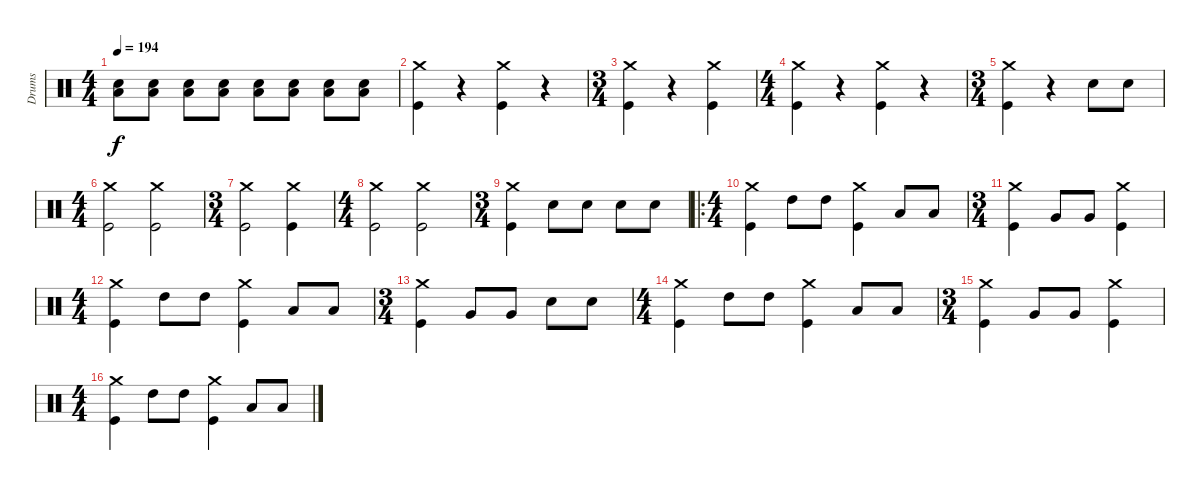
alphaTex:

\track ("Drums" "Drums") {instrument percussion}
\staff {score}
\articulation defaults
\ts (4 4)
\tempo 194
\clef neutral
\ks c
("Low Floor Tom (hit)" "Snare (hit) 2").8{dy f} ("Low Floor Tom (hit)" "Snare (hit) 2").8 ("Low Floor Tom (hit)" "Snare (hit) 2").8 ("Low Floor Tom (hit)" "Snare (hit) 2").8 ("Low Floor Tom (hit)" "Snare (hit) 2").8 ("Low Floor Tom (hit)" "Snare (hit) 2").8 ("Low Floor Tom (hit)" "Snare (hit) 2").8 ("Low Floor Tom (hit)" "Snare (hit) 2").8 |
("Crash medium (hit)" "Kick (hit)").4 r.4 ("Crash medium (hit)" "Kick (hit)").4 r.4 |
\ts (3 4)
("Crash medium (hit)" "Kick (hit)").4 r.4 ("Crash medium (hit)" "Kick (hit)").4 |
\ts (4 4)
("Crash medium (hit)" "Kick (hit)").4 r.4 ("Crash medium (hit)" "Kick (hit)").4 r.4 |
\ts (3 4)
("Crash medium (hit)" "Kick (hit)").4 r.4 "Snare (hit) 2".8 "Snare (hit) 2".8 |
\ts (4 4)
("Crash medium (hit)" "Kick (hit)").2 ("Crash medium (hit)" "Kick (hit)").2 |
\ts (3 4)
("Crash medium (hit)" "Kick (hit)").2 ("Crash medium (hit)" "Kick (hit)").4 |
\ts (4 4)
("Crash medium (hit)" "Kick (hit)").2 ("Crash medium (hit)" "Kick (hit)").2 |
\ts (3 4)
("Crash medium (hit)" "Kick (hit)").4 "Snare (hit) 2".8 "Snare (hit) 2".8 "Snare (hit) 2".8 "Snare (hit) 2".8 |
\ro
\ts (4 4)
("Crash medium (hit)" "Kick (hit)").4 "High Tom (hit)".8 "High Tom (hit)".8 ("Crash medium (hit)" "Kick (hit)").4 "Low Tom (hit)".8 "Low Tom (hit)".8 |
\ts (3 4)
("Crash medium (hit)" "Kick (hit)").4 "Very Low Tom (hit)".8 "Very Low Tom (hit)".8 ("Crash medium (hit)" "Kick (hit)").4 |
\ts (4 4)
("Crash medium (hit)" "Kick (hit)").4 "High Tom (hit)".8 "High Tom (hit)".8 ("Crash medium (hit)" "Kick (hit)").4 "Low Tom (hit)".8 "Low Tom (hit)".8 |
\ts (3 4)
("Crash medium (hit)" "Kick (hit)").4 "Very Low Tom (hit)".8 "Very Low Tom (hit)".8 "Snare (hit) 2".8 "Snare (hit) 2".8 |
\ts (4 4)
("Crash medium (hit)" "Kick (hit)").4 "High Tom (hit)".8 "High Tom (hit)".8 ("Crash medium (hit)" "Kick (hit)").4 "Low Tom (hit)".8 "Low Tom (hit)".8 |
\ts (3 4)
("Crash medium (hit)" "Kick (hit)").4 "Very Low Tom (hit)".8 "Very Low Tom (hit)".8 ("Crash medium (hit)" "Kick (hit)").4 |
\ts (4 4)
("Crash medium (hit)" "Kick (hit)").4 "High Tom (hit)".8 "High Tom (hit)".8 ("Crash medium (hit)" "Kick (hit)").4 "Low Tom (hit)".8 "Low Tom (hit)".8
